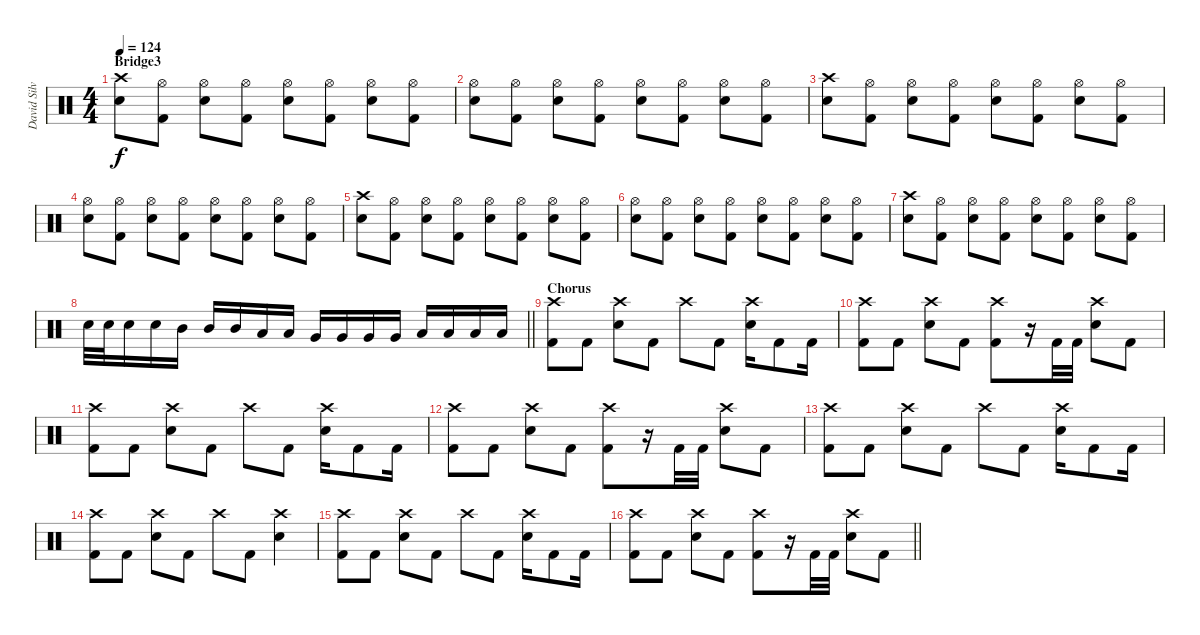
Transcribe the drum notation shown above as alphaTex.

\track ("David Silvera" "David Silv") {instrument percussion}
\staff {score}
\articulation defaults
\ts (4 4)
\section ("" "Bridge3")
\tempo 124
\clef neutral
\ks c
("Crash high (hit)" "Electric Snare (hit)").8{dy f} ("Hi-Hat (open)" "Kick (hit) 2").8 ("Hi-Hat (open)" "Electric Snare (hit)").8 ("Hi-Hat (open)" "Kick (hit) 2").8 ("Hi-Hat (open)" "Electric Snare (hit)").8 ("Hi-Hat (open)" "Kick (hit) 2").8 ("Hi-Hat (open)" "Electric Snare (hit)").8 ("Hi-Hat (open)" "Kick (hit) 2").8 |
("Hi-Hat (open)" "Electric Snare (hit)").8 ("Hi-Hat (open)" "Kick (hit) 2").8 ("Hi-Hat (open)" "Electric Snare (hit)").8 ("Hi-Hat (open)" "Kick (hit) 2").8 ("Hi-Hat (open)" "Electric Snare (hit)").8 ("Hi-Hat (open)" "Kick (hit) 2").8 ("Hi-Hat (open)" "Electric Snare (hit)").8 ("Hi-Hat (open)" "Kick (hit) 2").8 |
("Crash high (hit)" "Electric Snare (hit)").8 ("Hi-Hat (open)" "Kick (hit) 2").8 ("Hi-Hat (open)" "Electric Snare (hit)").8 ("Hi-Hat (open)" "Kick (hit) 2").8 ("Hi-Hat (open)" "Electric Snare (hit)").8 ("Hi-Hat (open)" "Kick (hit) 2").8 ("Hi-Hat (open)" "Electric Snare (hit)").8 ("Hi-Hat (open)" "Kick (hit) 2").8 |
("Hi-Hat (open)" "Electric Snare (hit)").8 ("Hi-Hat (open)" "Kick (hit) 2").8 ("Hi-Hat (open)" "Electric Snare (hit)").8 ("Hi-Hat (open)" "Kick (hit) 2").8 ("Hi-Hat (open)" "Electric Snare (hit)").8 ("Hi-Hat (open)" "Kick (hit) 2").8 ("Hi-Hat (open)" "Electric Snare (hit)").8 ("Hi-Hat (open)" "Kick (hit) 2").8 |
("Crash high (hit)" "Electric Snare (hit)").8 ("Hi-Hat (open)" "Kick (hit) 2").8 ("Hi-Hat (open)" "Electric Snare (hit)").8 ("Hi-Hat (open)" "Kick (hit) 2").8 ("Hi-Hat (open)" "Electric Snare (hit)").8 ("Hi-Hat (open)" "Kick (hit) 2").8 ("Hi-Hat (open)" "Electric Snare (hit)").8 ("Hi-Hat (open)" "Kick (hit) 2").8 |
("Hi-Hat (open)" "Electric Snare (hit)").8 ("Hi-Hat (open)" "Kick (hit) 2").8 ("Hi-Hat (open)" "Electric Snare (hit)").8 ("Hi-Hat (open)" "Kick (hit) 2").8 ("Hi-Hat (open)" "Electric Snare (hit)").8 ("Hi-Hat (open)" "Kick (hit) 2").8 ("Hi-Hat (open)" "Electric Snare (hit)").8 ("Hi-Hat (open)" "Kick (hit) 2").8 |
("Crash high (hit)" "Electric Snare (hit)").8 ("Hi-Hat (open)" "Kick (hit) 2").8 ("Hi-Hat (open)" "Electric Snare (hit)").8 ("Hi-Hat (open)" "Kick (hit) 2").8 ("Hi-Hat (open)" "Electric Snare (hit)").8 ("Hi-Hat (open)" "Kick (hit) 2").8 ("Hi-Hat (open)" "Electric Snare (hit)").8 ("Hi-Hat (open)" "Kick (hit) 2").8 |
\barLineRight lightlight "Electric Snare (hit)".32 "Electric Snare (hit)".32 "Electric Snare (hit)".16 "Electric Snare (hit)".16 "Mid Tom (hit)".16 "Mid Tom (hit)".16 "Mid Tom (hit)".16 "Low Tom (hit)".16 "Low Tom (hit)".16 "Very Low Tom (hit)".16 "Very Low Tom (hit)".16 "Very Low Tom (hit)".16 "Very Low Tom (hit)".16 "Low Floor Tom (hit)".16 "Low Floor Tom (hit)".16 "Low Floor Tom (hit)".16 "Low Floor Tom (hit)".16
|
\section ("" "Chorus")
("Crash high (hit)" "Kick (hit) 2").8 "Kick (hit) 2".8 ("Crash high (hit)" "Electric Snare (hit)").8 "Kick (hit) 2".8 "Crash high (hit)".8 "Kick (hit) 2".8 ("Crash high (hit)" "Electric Snare (hit)").16 "Kick (hit) 2".8 "Kick (hit) 2".16 |
("Crash high (hit)" "Kick (hit) 2").8 "Kick (hit) 2".8 ("Crash high (hit)" "Electric Snare (hit)").8 "Kick (hit) 2".8 ("Crash high (hit)" "Kick (hit) 2").8 r.16 "Kick (hit) 2".32 "Kick (hit) 2".32 ("Crash high (hit)" "Electric Snare (hit)").8 "Kick (hit) 2".8 |
("Crash high (hit)" "Kick (hit) 2").8 "Kick (hit) 2".8 ("Crash high (hit)" "Electric Snare (hit)").8 "Kick (hit) 2".8 "Crash high (hit)".8 "Kick (hit) 2".8 ("Crash high (hit)" "Electric Snare (hit)").16 "Kick (hit) 2".8 "Kick (hit) 2".16 |
("Crash high (hit)" "Kick (hit) 2").8 "Kick (hit) 2".8 ("Crash high (hit)" "Electric Snare (hit)").8 "Kick (hit) 2".8 ("Crash high (hit)" "Kick (hit) 2").8 r.16 "Kick (hit) 2".32 "Kick (hit) 2".32 ("Crash high (hit)" "Electric Snare (hit)").8 "Kick (hit) 2".8 |
("Crash high (hit)" "Kick (hit) 2").8 "Kick (hit) 2".8 ("Crash high (hit)" "Electric Snare (hit)").8 "Kick (hit) 2".8 "Crash high (hit)".8 "Kick (hit) 2".8 ("Crash high (hit)" "Electric Snare (hit)").16 "Kick (hit) 2".8 "Kick (hit) 2".16 |
("Crash high (hit)" "Kick (hit) 2").8 "Kick (hit) 2".8 ("Crash high (hit)" "Electric Snare (hit)").8 "Kick (hit) 2".8 "Crash high (hit)".8 "Kick (hit) 2".8 ("Crash high (hit)" "Electric Snare (hit)").4 |
("Crash high (hit)" "Kick (hit) 2").8 "Kick (hit) 2".8 ("Crash high (hit)" "Electric Snare (hit)").8 "Kick (hit) 2".8 "Crash high (hit)".8 "Kick (hit) 2".8 ("Crash high (hit)" "Electric Snare (hit)").16 "Kick (hit) 2".8 "Kick (hit) 2".16 |
\barLineRight lightlight
("Crash high (hit)" "Kick (hit) 2").8 "Kick (hit) 2".8 ("Crash high (hit)" "Electric Snare (hit)").8 "Kick (hit) 2".8 ("Crash high (hit)" "Kick (hit) 2").8 r.16 "Kick (hit) 2".32 "Kick (hit) 2".32 ("Crash high (hit)" "Electric Snare (hit)").8 "Kick (hit) 2".8
